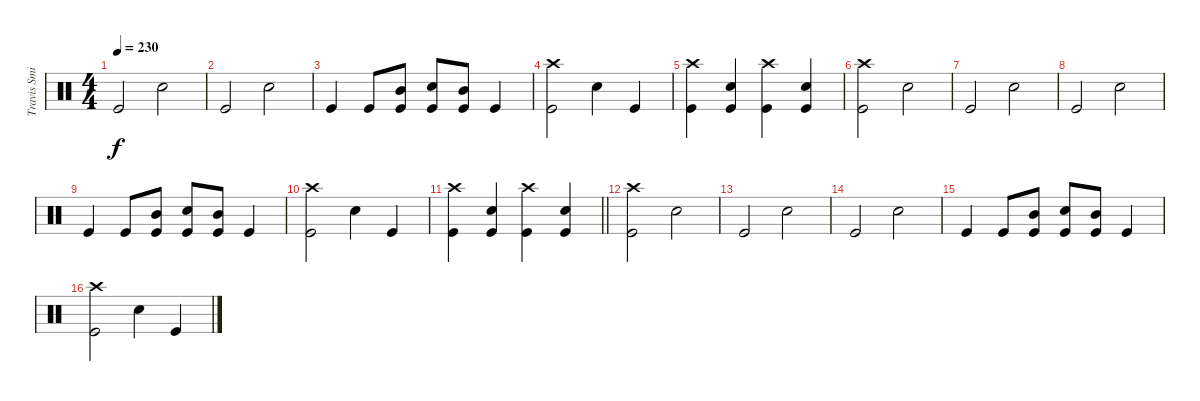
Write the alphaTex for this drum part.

\track ("Travis Smith" "Travis Smi") {instrument percussion}
\staff {score}
\articulation defaults
\ts (4 4)
\tempo 230
\clef neutral
\ks c "Kick (hit)".2{dy f} "Snare (hit) 2".2
|
"Kick (hit)".2 "Snare (hit) 2".2 |
"Kick (hit)".4 "Kick (hit)".8 ("Mid Tom (hit)" "Kick (hit)").8 ("Snare (hit) 2" "Kick (hit)").8 ("Mid Tom (hit)" "Kick (hit)").8 "Kick (hit)".4 |
("Crash high (hit)" "Kick (hit)").2 "Snare (hit) 2".4 "Kick (hit)".4 |
("Crash high (hit)" "Kick (hit)").4 ("Snare (hit) 2" "Kick (hit)").4 ("Crash high (hit)" "Kick (hit)").4 ("Snare (hit) 2" "Kick (hit)").4 |
("Crash high (hit)" "Kick (hit)").2 "Snare (hit) 2".2 |
"Kick (hit)".2 "Snare (hit) 2".2 |
"Kick (hit)".2 "Snare (hit) 2".2 |
"Kick (hit)".4 "Kick (hit)".8 ("Mid Tom (hit)" "Kick (hit)").8 ("Snare (hit) 2" "Kick (hit)").8 ("Mid Tom (hit)" "Kick (hit)").8 "Kick (hit)".4 |
("Crash high (hit)" "Kick (hit)").2 "Snare (hit) 2".4 "Kick (hit)".4 |
\barLineRight lightlight
("Crash high (hit)" "Kick (hit)").4 ("Snare (hit) 2" "Kick (hit)").4 ("Crash high (hit)" "Kick (hit)").4 ("Snare (hit) 2" "Kick (hit)").4 |
("Crash high (hit)" "Kick (hit)").2 "Snare (hit) 2".2 |
"Kick (hit)".2 "Snare (hit) 2".2 |
"Kick (hit)".2 "Snare (hit) 2".2 |
"Kick (hit)".4 "Kick (hit)".8 ("Mid Tom (hit)" "Kick (hit)").8 ("Snare (hit) 2" "Kick (hit)").8 ("Mid Tom (hit)" "Kick (hit)").8 "Kick (hit)".4 |
("Crash high (hit)" "Kick (hit)").2 "Snare (hit) 2".4 "Kick (hit)".4
